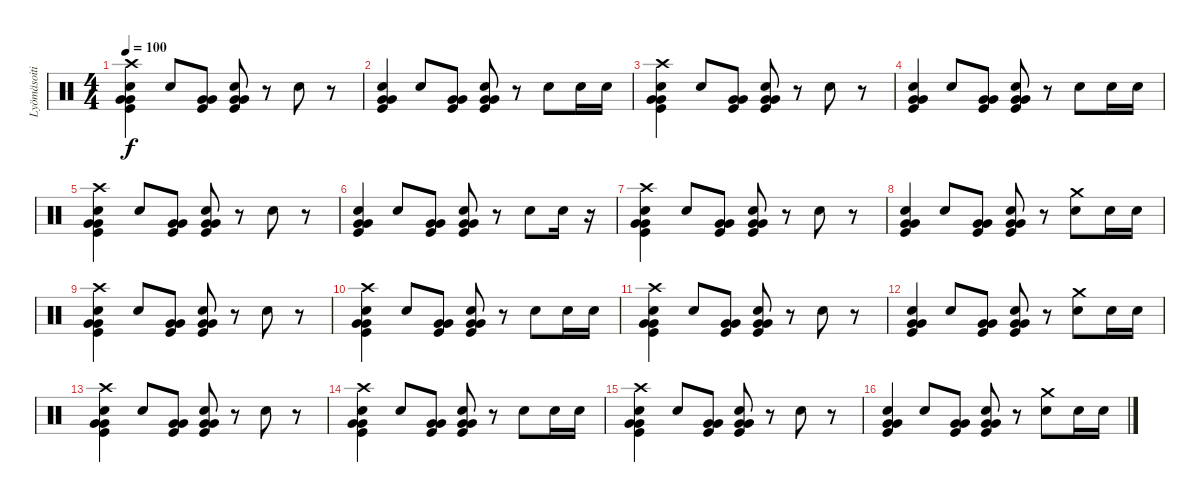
\track ("Lyömäsoitin" "Lyömäsoiti") {instrument percussion}
\staff {score}
\articulation defaults
\ts (4 4)
\tempo 100
\clef neutral
\ks c
("Crash high (hit)" "Snare (hit) 2" "Very Low Tom (hit)" "Very Low Tom (hit)" "Kick (hit)").4{dy f} "Snare (hit) 2".8 ("Very Low Tom (hit)" "Very Low Tom (hit)" "Kick (hit)").8 ("Snare (hit) 2" "Very Low Tom (hit)" "Very Low Tom (hit)" "Kick (hit)").8 r.8 "Snare (hit) 2".8 r.8 |
("Snare (hit) 2" "Very Low Tom (hit)" "Very Low Tom (hit)" "Kick (hit)").4 "Snare (hit) 2".8 ("Very Low Tom (hit)" "Very Low Tom (hit)" "Kick (hit)").8 ("Snare (hit) 2" "Very Low Tom (hit)" "Very Low Tom (hit)" "Kick (hit)").8 r.8 "Snare (hit) 2".8 "Snare (hit) 2".16 "Snare (hit) 2".16 |
("Crash high (hit)" "Snare (hit) 2" "Very Low Tom (hit)" "Very Low Tom (hit)" "Kick (hit)").4 "Snare (hit) 2".8 ("Very Low Tom (hit)" "Very Low Tom (hit)" "Kick (hit)").8 ("Snare (hit) 2" "Very Low Tom (hit)" "Very Low Tom (hit)" "Kick (hit)").8 r.8 "Snare (hit) 2".8 r.8 |
("Snare (hit) 2" "Very Low Tom (hit)" "Very Low Tom (hit)" "Kick (hit)").4 "Snare (hit) 2".8 ("Very Low Tom (hit)" "Very Low Tom (hit)" "Kick (hit)").8 ("Snare (hit) 2" "Very Low Tom (hit)" "Very Low Tom (hit)" "Kick (hit)").8 r.8 "Snare (hit) 2".8 "Snare (hit) 2".16 "Snare (hit) 2".16 |
("Crash high (hit)" "Snare (hit) 2" "Very Low Tom (hit)" "Very Low Tom (hit)" "Kick (hit)").4 "Snare (hit) 2".8 ("Very Low Tom (hit)" "Very Low Tom (hit)" "Kick (hit)").8 ("Snare (hit) 2" "Very Low Tom (hit)" "Very Low Tom (hit)" "Kick (hit)").8 r.8 "Snare (hit) 2".8 r.8 |
("Snare (hit) 2" "Very Low Tom (hit)" "Very Low Tom (hit)" "Kick (hit)").4 "Snare (hit) 2".8 ("Very Low Tom (hit)" "Very Low Tom (hit)" "Kick (hit)").8 ("Snare (hit) 2" "Very Low Tom (hit)" "Very Low Tom (hit)" "Kick (hit)").8 r.8 "Snare (hit) 2".8 "Snare (hit) 2".16 r.16 |
("Crash high (hit)" "Snare (hit) 2" "Very Low Tom (hit)" "Very Low Tom (hit)" "Kick (hit)").4 "Snare (hit) 2".8 ("Very Low Tom (hit)" "Very Low Tom (hit)" "Kick (hit)").8 ("Snare (hit) 2" "Very Low Tom (hit)" "Very Low Tom (hit)" "Kick (hit)").8 r.8 "Snare (hit) 2".8 r.8 |
("Snare (hit) 2" "Very Low Tom (hit)" "Very Low Tom (hit)" "Kick (hit)").4 "Snare (hit) 2".8 ("Very Low Tom (hit)" "Very Low Tom (hit)" "Kick (hit)").8 ("Snare (hit) 2" "Very Low Tom (hit)" "Very Low Tom (hit)" "Kick (hit)").8 r.8 ("Crash medium (hit)" "Snare (hit) 2").8 "Snare (hit) 2".16 "Snare (hit) 2".16 |
("Crash high (hit)" "Snare (hit) 2" "Very Low Tom (hit)" "Very Low Tom (hit)" "Kick (hit)").4 "Snare (hit) 2".8 ("Very Low Tom (hit)" "Very Low Tom (hit)" "Kick (hit)").8 ("Snare (hit) 2" "Very Low Tom (hit)" "Very Low Tom (hit)" "Kick (hit)").8 r.8 "Snare (hit) 2".8 r.8 |
("Crash high (hit)" "Snare (hit) 2" "Very Low Tom (hit)" "Very Low Tom (hit)" "Kick (hit)").4 "Snare (hit) 2".8 ("Very Low Tom (hit)" "Very Low Tom (hit)" "Kick (hit)").8 ("Snare (hit) 2" "Very Low Tom (hit)" "Very Low Tom (hit)" "Kick (hit)").8 r.8 "Snare (hit) 2".8 "Snare (hit) 2".16 "Snare (hit) 2".16 |
("Crash high (hit)" "Snare (hit) 2" "Very Low Tom (hit)" "Very Low Tom (hit)" "Kick (hit)").4 "Snare (hit) 2".8 ("Very Low Tom (hit)" "Very Low Tom (hit)" "Kick (hit)").8 ("Snare (hit) 2" "Very Low Tom (hit)" "Very Low Tom (hit)" "Kick (hit)").8 r.8 "Snare (hit) 2".8 r.8 |
("Snare (hit) 2" "Very Low Tom (hit)" "Very Low Tom (hit)" "Kick (hit)").4 "Snare (hit) 2".8 ("Very Low Tom (hit)" "Very Low Tom (hit)" "Kick (hit)").8 ("Snare (hit) 2" "Very Low Tom (hit)" "Very Low Tom (hit)" "Kick (hit)").8 r.8 ("Crash medium (hit)" "Snare (hit) 2").8 "Snare (hit) 2".16 "Snare (hit) 2".16 |
("Crash high (hit)" "Snare (hit) 2" "Very Low Tom (hit)" "Very Low Tom (hit)" "Kick (hit)").4 "Snare (hit) 2".8 ("Very Low Tom (hit)" "Very Low Tom (hit)" "Kick (hit)").8 ("Snare (hit) 2" "Very Low Tom (hit)" "Very Low Tom (hit)" "Kick (hit)").8 r.8 "Snare (hit) 2".8 r.8 |
("Crash high (hit)" "Snare (hit) 2" "Very Low Tom (hit)" "Very Low Tom (hit)" "Kick (hit)").4 "Snare (hit) 2".8 ("Very Low Tom (hit)" "Very Low Tom (hit)" "Kick (hit)").8 ("Snare (hit) 2" "Very Low Tom (hit)" "Very Low Tom (hit)" "Kick (hit)").8 r.8 "Snare (hit) 2".8 "Snare (hit) 2".16 "Snare (hit) 2".16 |
("Crash high (hit)" "Snare (hit) 2" "Very Low Tom (hit)" "Very Low Tom (hit)" "Kick (hit)").4 "Snare (hit) 2".8 ("Very Low Tom (hit)" "Very Low Tom (hit)" "Kick (hit)").8 ("Snare (hit) 2" "Very Low Tom (hit)" "Very Low Tom (hit)" "Kick (hit)").8 r.8 "Snare (hit) 2".8 r.8 |
("Snare (hit) 2" "Very Low Tom (hit)" "Very Low Tom (hit)" "Kick (hit)").4 "Snare (hit) 2".8 ("Very Low Tom (hit)" "Very Low Tom (hit)" "Kick (hit)").8 ("Snare (hit) 2" "Very Low Tom (hit)" "Very Low Tom (hit)" "Kick (hit)").8 r.8 ("Crash medium (hit)" "Snare (hit) 2").8 "Snare (hit) 2".16 "Snare (hit) 2".16
